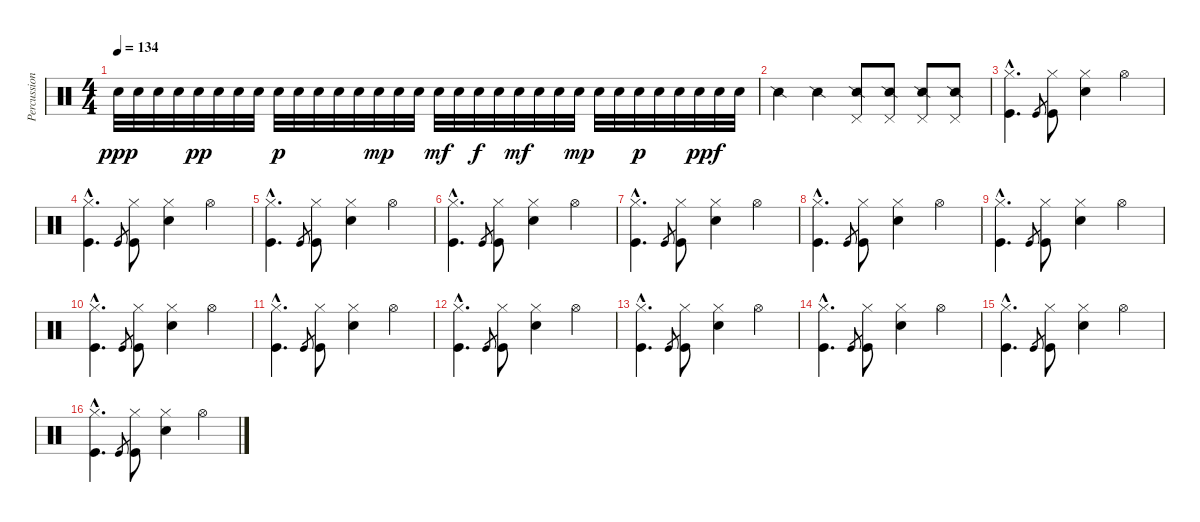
\track ("Percussions" "Percussion") {instrument percussion}
\staff {score}
\articulation defaults
\ts (4 4)
\tempo 134
\clef neutral
\ks c "Electric Snare (hit)".32{dy ppp} "Electric Snare (hit)".32 "Electric Snare (hit)".32 "Electric Snare (hit)".32 "Electric Snare (hit)".32{dy pp} "Electric Snare (hit)".32 "Electric Snare (hit)".32 "Electric Snare (hit)".32 "Electric Snare (hit)".32{dy p} "Electric Snare (hit)".32 "Electric Snare (hit)".32 "Electric Snare (hit)".32 "Electric Snare (hit)".32 "Electric Snare (hit)".32{dy mp} "Electric Snare (hit)".32 "Electric Snare (hit)".32 "Electric Snare (hit)".32{dy mf} "Electric Snare (hit)".32 "Electric Snare (hit)".32{dy f} "Electric Snare (hit)".32 "Electric Snare (hit)".32{dy mf} "Electric Snare (hit)".32 "Electric Snare (hit)".32 "Electric Snare (hit)".32{dy mp} "Electric Snare (hit)".32 "Electric Snare (hit)".32 "Electric Snare (hit)".32{dy p} "Electric Snare (hit)".32 "Electric Snare (hit)".32 "Electric Snare (hit)".32{dy pp} "Electric Snare (hit)".32{dy f} "Electric Snare (hit)".32
|
"Snare (side stick) 2".4 "Snare (side stick) 2".4 ("Snare (side stick) 2" "Pedal Hi-Hat (hit)").8 ("Snare (side stick) 2" "Pedal Hi-Hat (hit)").8 ("Snare (side stick) 2" "Pedal Hi-Hat (hit)").8 ("Snare (side stick) 2" "Pedal Hi-Hat (hit)").8 |
("Hi-Hat (closed)"{hac} "Kick (hit)"{hac}).4{d} "Kick (hit)".8{gr} ("Hi-Hat (closed)" "Kick (hit)").8 ("Hi-Hat (closed)" "Electric Snare (hit)").4 "Hi-Hat (open)".4 |
("Hi-Hat (closed)"{hac} "Kick (hit)"{hac}).4{d} "Kick (hit)".8{gr} ("Hi-Hat (closed)" "Kick (hit)").8 ("Hi-Hat (closed)" "Electric Snare (hit)").4 "Hi-Hat (open)".4 |
("Hi-Hat (closed)"{hac} "Kick (hit)"{hac}).4{d} "Kick (hit)".8{gr} ("Hi-Hat (closed)" "Kick (hit)").8 ("Hi-Hat (closed)" "Electric Snare (hit)").4 "Hi-Hat (open)".4 |
("Hi-Hat (closed)"{hac} "Kick (hit)"{hac}).4{d} "Kick (hit)".8{gr} ("Hi-Hat (closed)" "Kick (hit)").8 ("Hi-Hat (closed)" "Electric Snare (hit)").4 "Hi-Hat (open)".4 |
("Hi-Hat (closed)"{hac} "Kick (hit)"{hac}).4{d} "Kick (hit)".8{gr} ("Hi-Hat (closed)" "Kick (hit)").8 ("Hi-Hat (closed)" "Electric Snare (hit)").4 "Hi-Hat (open)".4 |
("Hi-Hat (closed)"{hac} "Kick (hit)"{hac}).4{d} "Kick (hit)".8{gr} ("Hi-Hat (closed)" "Kick (hit)").8 ("Hi-Hat (closed)" "Electric Snare (hit)").4 "Hi-Hat (open)".4 |
("Hi-Hat (closed)"{hac} "Kick (hit)"{hac}).4{d} "Kick (hit)".8{gr} ("Hi-Hat (closed)" "Kick (hit)").8 ("Hi-Hat (closed)" "Electric Snare (hit)").4 "Hi-Hat (open)".4 |
("Hi-Hat (closed)"{hac} "Kick (hit)"{hac}).4{d} "Kick (hit)".8{gr} ("Hi-Hat (closed)" "Kick (hit)").8 ("Hi-Hat (closed)" "Electric Snare (hit)").4 "Hi-Hat (open)".4 |
("Hi-Hat (closed)"{hac} "Kick (hit)"{hac}).4{d} "Kick (hit)".8{gr} ("Hi-Hat (closed)" "Kick (hit)").8 ("Hi-Hat (closed)" "Electric Snare (hit)").4 "Hi-Hat (open)".4 |
("Hi-Hat (closed)"{hac} "Kick (hit)"{hac}).4{d} "Kick (hit)".8{gr} ("Hi-Hat (closed)" "Kick (hit)").8 ("Hi-Hat (closed)" "Electric Snare (hit)").4 "Hi-Hat (open)".4 |
("Hi-Hat (closed)"{hac} "Kick (hit)"{hac}).4{d} "Kick (hit)".8{gr} ("Hi-Hat (closed)" "Kick (hit)").8 ("Hi-Hat (closed)" "Electric Snare (hit)").4 "Hi-Hat (open)".4 |
("Hi-Hat (closed)"{hac} "Kick (hit)"{hac}).4{d} "Kick (hit)".8{gr} ("Hi-Hat (closed)" "Kick (hit)").8 ("Hi-Hat (closed)" "Electric Snare (hit)").4 "Hi-Hat (open)".4 |
("Hi-Hat (closed)"{hac} "Kick (hit)"{hac}).4{d} "Kick (hit)".8{gr} ("Hi-Hat (closed)" "Kick (hit)").8 ("Hi-Hat (closed)" "Electric Snare (hit)").4 "Hi-Hat (open)".4 |
("Hi-Hat (closed)"{hac} "Kick (hit)"{hac}).4{d} "Kick (hit)".8{gr} ("Hi-Hat (closed)" "Kick (hit)").8 ("Hi-Hat (closed)" "Electric Snare (hit)").4 "Hi-Hat (open)".4
